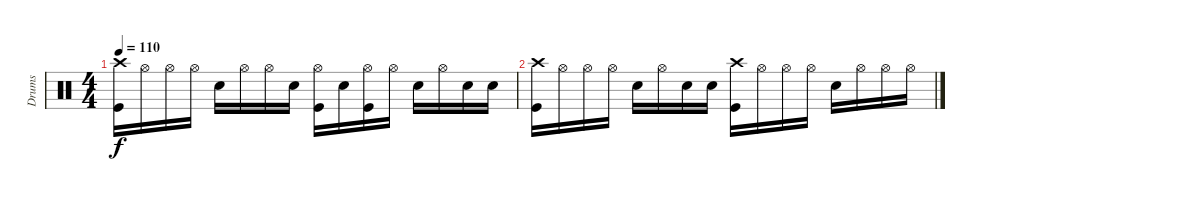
\track ("Drums" "Drums") {instrument percussion}
\staff {score}
\articulation defaults
\ts (4 4)
\tempo 110
\clef neutral
\ks c
("Crash high (hit)" "Kick (hit)").16{dy f} "Hi-Hat (open)".16 "Hi-Hat (open)".16 "Hi-Hat (open)".16 "Snare (hit) 2".16 "Hi-Hat (open)".16 "Hi-Hat (open)".16 "Snare (hit) 2".16 ("Hi-Hat (open)" "Kick (hit)").16 "Snare (hit) 2".16 ("Hi-Hat (open)" "Kick (hit)").16 "Hi-Hat (open)".16 "Snare (hit) 2".16 "Hi-Hat (open)".16 "Snare (hit) 2".16 "Snare (hit) 2".16 |
("Crash high (hit)" "Kick (hit)").16 "Hi-Hat (open)".16 "Hi-Hat (open)".16 "Hi-Hat (open)".16 "Snare (hit) 2".16 "Hi-Hat (open)".16 "Snare (hit) 2".16 "Snare (hit) 2".16 ("Crash high (hit)" "Kick (hit)").16 "Hi-Hat (open)".16 "Hi-Hat (open)".16 "Hi-Hat (open)".16 "Snare (hit) 2".16 "Hi-Hat (open)".16 "Hi-Hat (open)".16 "Hi-Hat (open)".16
